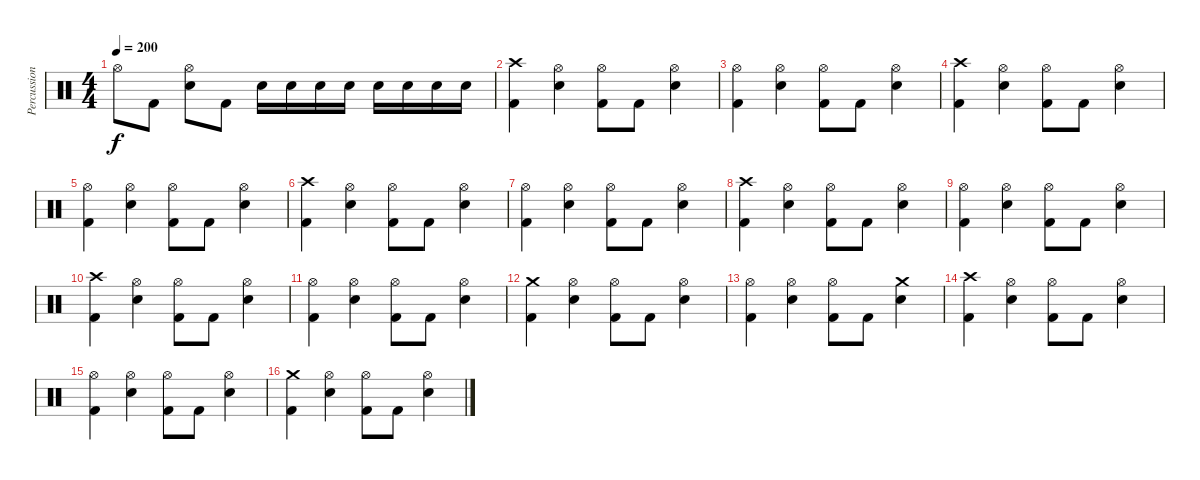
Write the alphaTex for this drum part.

\track ("Percussion" "Percussion") {instrument percussion}
\staff {score}
\articulation defaults
\ts (4 4)
\tempo 200
\clef neutral
\ks c "Hi-Hat (open)".8{dy f} "Kick (hit) 2".8
("Hi-Hat (open)" "Electric Snare (hit)").8 "Kick (hit) 2".8 "Electric Snare (hit)".16 "Electric Snare (hit)".16 "Electric Snare (hit)".16 "Electric Snare (hit)".16 "Electric Snare (hit)".16 "Electric Snare (hit)".16 "Electric Snare (hit)".16 "Electric Snare (hit)".16 |
("Crash high (hit)" "Kick (hit) 2").4 ("Hi-Hat (open)" "Electric Snare (hit)").4 ("Hi-Hat (open)" "Kick (hit) 2").8 "Kick (hit) 2".8 ("Hi-Hat (open)" "Electric Snare (hit)").4 |
("Hi-Hat (open)" "Kick (hit) 2").4 ("Hi-Hat (open)" "Electric Snare (hit)").4 ("Hi-Hat (open)" "Kick (hit) 2").8 "Kick (hit) 2".8 ("Hi-Hat (open)" "Electric Snare (hit)").4 |
("Crash high (hit)" "Kick (hit) 2").4 ("Hi-Hat (open)" "Electric Snare (hit)").4 ("Hi-Hat (open)" "Kick (hit) 2").8 "Kick (hit) 2".8 ("Hi-Hat (open)" "Electric Snare (hit)").4 |
("Hi-Hat (open)" "Kick (hit) 2").4 ("Hi-Hat (open)" "Electric Snare (hit)").4 ("Hi-Hat (open)" "Kick (hit) 2").8 "Kick (hit) 2".8 ("Hi-Hat (open)" "Electric Snare (hit)").4 |
("Crash high (hit)" "Kick (hit) 2").4 ("Hi-Hat (open)" "Electric Snare (hit)").4 ("Hi-Hat (open)" "Kick (hit) 2").8 "Kick (hit) 2".8 ("Hi-Hat (open)" "Electric Snare (hit)").4 |
("Hi-Hat (open)" "Kick (hit) 2").4 ("Hi-Hat (open)" "Electric Snare (hit)").4 ("Hi-Hat (open)" "Kick (hit) 2").8 "Kick (hit) 2".8 ("Hi-Hat (open)" "Electric Snare (hit)").4 |
("Crash high (hit)" "Kick (hit) 2").4 ("Hi-Hat (open)" "Electric Snare (hit)").4 ("Hi-Hat (open)" "Kick (hit) 2").8 "Kick (hit) 2".8 ("Hi-Hat (open)" "Electric Snare (hit)").4 |
("Hi-Hat (open)" "Kick (hit) 2").4 ("Hi-Hat (open)" "Electric Snare (hit)").4 ("Hi-Hat (open)" "Kick (hit) 2").8 "Kick (hit) 2".8 ("Hi-Hat (open)" "Electric Snare (hit)").4 |
("Crash high (hit)" "Kick (hit) 2").4 ("Hi-Hat (open)" "Electric Snare (hit)").4 ("Hi-Hat (open)" "Kick (hit) 2").8 "Kick (hit) 2".8 ("Hi-Hat (open)" "Electric Snare (hit)").4 |
("Hi-Hat (open)" "Kick (hit) 2").4 ("Hi-Hat (open)" "Electric Snare (hit)").4 ("Hi-Hat (open)" "Kick (hit) 2").8 "Kick (hit) 2".8 ("Hi-Hat (open)" "Electric Snare (hit)").4 |
("Crash medium (hit)" "Kick (hit) 2").4 ("Hi-Hat (open)" "Electric Snare (hit)").4 ("Hi-Hat (open)" "Kick (hit) 2").8 "Kick (hit) 2".8 ("Hi-Hat (open)" "Electric Snare (hit)").4 |
("Hi-Hat (open)" "Kick (hit) 2").4 ("Hi-Hat (open)" "Electric Snare (hit)").4 ("Hi-Hat (open)" "Kick (hit) 2").8 "Kick (hit) 2".8 ("Crash medium (hit)" "Electric Snare (hit)").4 |
("Crash high (hit)" "Kick (hit) 2").4 ("Hi-Hat (open)" "Electric Snare (hit)").4 ("Hi-Hat (open)" "Kick (hit) 2").8 "Kick (hit) 2".8 ("Hi-Hat (open)" "Electric Snare (hit)").4 |
("Hi-Hat (open)" "Kick (hit) 2").4 ("Hi-Hat (open)" "Electric Snare (hit)").4 ("Hi-Hat (open)" "Kick (hit) 2").8 "Kick (hit) 2".8 ("Hi-Hat (open)" "Electric Snare (hit)").4 |
("Crash medium (hit)" "Kick (hit) 2").4 ("Hi-Hat (open)" "Electric Snare (hit)").4 ("Hi-Hat (open)" "Kick (hit) 2").8 "Kick (hit) 2".8 ("Hi-Hat (open)" "Electric Snare (hit)").4
